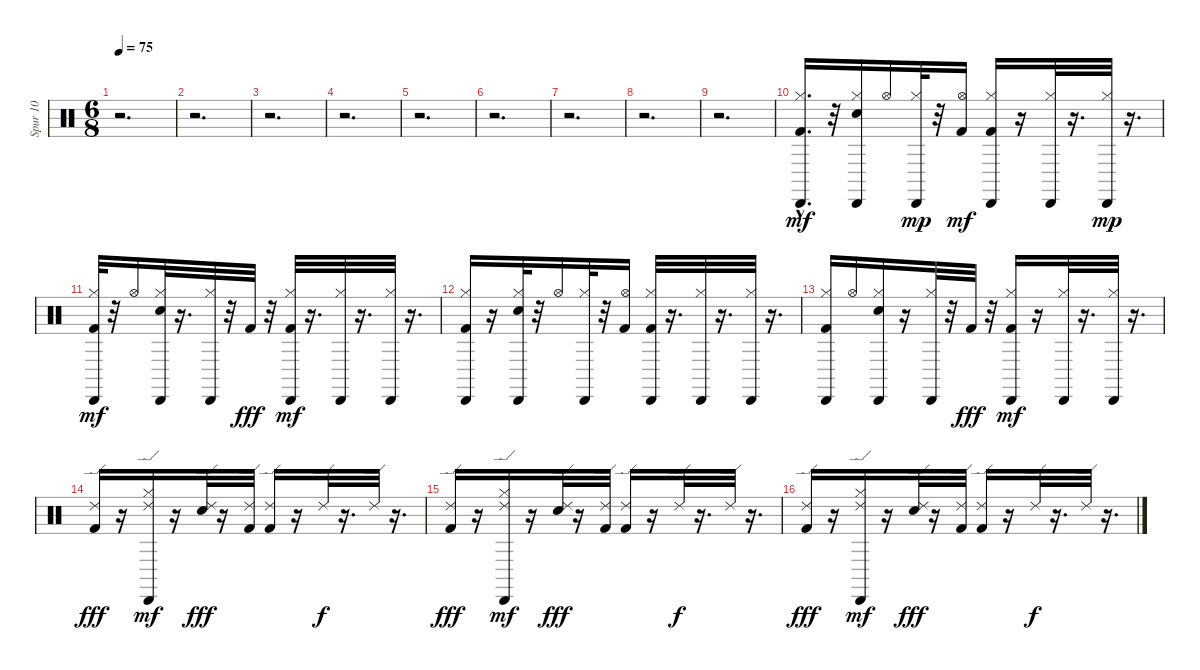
\track ("Spur 10" "Spur 10") {instrument percussion}
\staff {score}
\articulation defaults
\ts (6 8)
\tempo 75
\clef neutral
\ks c
r.2{d dy mf} |
r.2{d} |
r.2{d} |
r.2{d} |
r.2{d} |
r.2{d} |
r.2{d} |
r.2{d} |
r.2{d} |
("Cabasa (hit)" "Kick (hit) 2"{hac} "Hi-Hat (closed)").16{d} r.32 ("Cabasa (hit)" "Snare (hit) 2" "Hi-Hat (closed)").16 "Hi-Hat (open)".16 ("Cabasa (hit)" "Hi-Hat (closed)").32{dy mp} r.32 ("Kick (hit) 2" "Hi-Hat (open)").16{dy mf} ("Cabasa (hit)" "Kick (hit) 2" "Hi-Hat (closed)").16 r.16 ("Cabasa (hit)" "Hi-Hat (closed)").32 r.16{d} ("Cabasa (hit)" "Hi-Hat (closed)").32{dy mp} r.16{d} |
("Cabasa (hit)" "Kick (hit) 2" "Hi-Hat (closed)").32{dy mf} r.32 "Hi-Hat (open)".16 ("Cabasa (hit)" "Snare (hit) 2" "Hi-Hat (closed)").32 r.16{d} ("Cabasa (hit)" "Hi-Hat (closed)").32 r.32 "Kick (hit) 2".32{dy fff} r.32 ("Cabasa (hit)" "Kick (hit) 2" "Hi-Hat (closed)").32{dy mf} r.16{d} ("Cabasa (hit)" "Hi-Hat (closed)").32 r.16{d} ("Cabasa (hit)" "Hi-Hat (closed)").32 r.16{d} |
("Cabasa (hit)" "Kick (hit) 2" "Hi-Hat (closed)").16 r.16 ("Cabasa (hit)" "Snare (hit) 2" "Hi-Hat (closed)").32 r.32 "Hi-Hat (open)".16 ("Cabasa (hit)" "Hi-Hat (closed)").32 r.32 ("Kick (hit) 2" "Hi-Hat (open)").16 ("Cabasa (hit)" "Kick (hit) 2" "Hi-Hat (closed)").32 r.16{d} ("Cabasa (hit)" "Hi-Hat (closed)").32 r.16{d} ("Cabasa (hit)" "Hi-Hat (closed)").32 r.16{d} |
("Cabasa (hit)" "Kick (hit) 2" "Hi-Hat (closed)").16 "Hi-Hat (open)".16 ("Cabasa (hit)" "Snare (hit) 2" "Hi-Hat (closed)").16 r.16 ("Cabasa (hit)" "Hi-Hat (closed)").32 r.32 "Kick (hit) 2".32{dy fff} r.32 ("Cabasa (hit)" "Kick (hit) 2" "Hi-Hat (closed)").16{dy mf} r.16 ("Cabasa (hit)" "Hi-Hat (closed)").32 r.16{d} ("Cabasa (hit)" "Hi-Hat (closed)").32 r.16{d} |
("Kick (hit) 2" "Ride (edge) 2").16{dy fff} r.16 ("Cabasa (hit)" "Hi-Hat (closed)" "Ride (edge) 2").16{dy mf} r.16 ("Snare (hit) 2" "Ride (edge) 2").32{dy fff} r.16 ("Kick (hit) 2" "Ride (edge) 2").32 ("Kick (hit) 2" "Ride (edge) 2").16 r.16 "Ride (edge) 2".32{dy f} r.16{d} "Ride (edge) 2".32 r.16{d} |
("Kick (hit) 2" "Ride (edge) 2").16{dy fff} r.16 ("Cabasa (hit)" "Hi-Hat (closed)" "Ride (edge) 2").16{dy mf} r.16 ("Snare (hit) 2" "Ride (edge) 2").32{dy fff} r.16 ("Kick (hit) 2" "Ride (edge) 2").32 ("Kick (hit) 2" "Ride (edge) 2").16 r.16 "Ride (edge) 2".32{dy f} r.16{d} "Ride (edge) 2".32 r.16{d} |
("Kick (hit) 2" "Ride (edge) 2").16{dy fff} r.16 ("Cabasa (hit)" "Hi-Hat (closed)" "Ride (edge) 2").16{dy mf} r.16 ("Snare (hit) 2" "Ride (edge) 2").32{dy fff} r.16 ("Kick (hit) 2" "Ride (edge) 2").32 ("Kick (hit) 2" "Ride (edge) 2").16 r.16 "Ride (edge) 2".32{dy f} r.16{d} "Ride (edge) 2".32 r.16{d}
